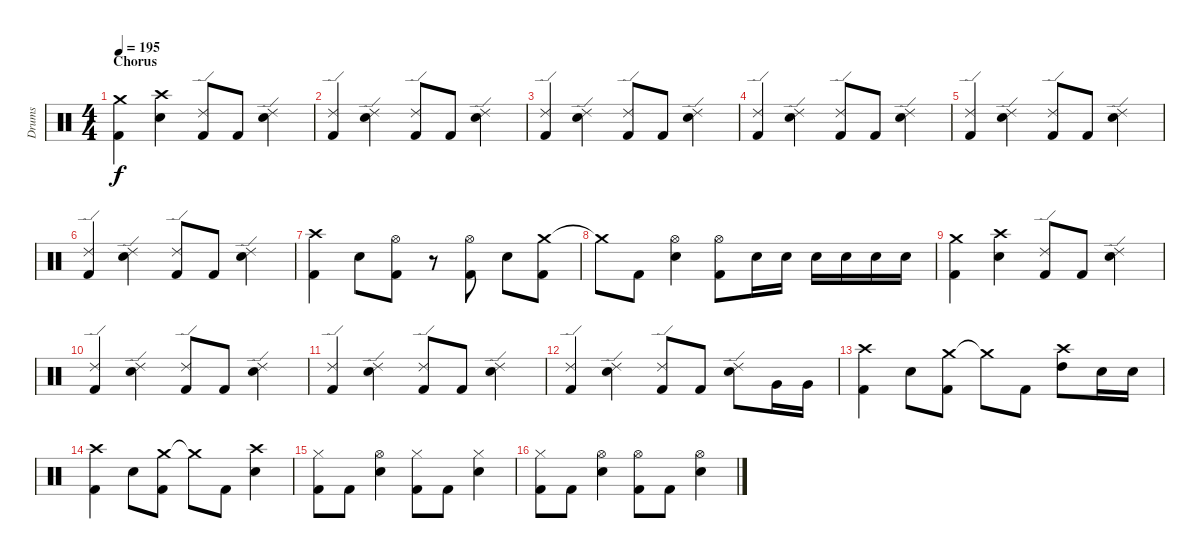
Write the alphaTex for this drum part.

\track ("Drums" "Drums") {instrument percussion}
\staff {score}
\articulation defaults
\ts (4 4)
\section ("" "Chorus")
\tempo 195
\clef neutral
\ks c
("Crash medium (hit)" "Kick (hit) 2").4{dy f} ("Crash high (hit)" "Snare (hit) 2").4 ("Ride (edge) 2" "Kick (hit) 2").8 "Kick (hit) 2".8 ("Ride (edge) 2" "Snare (hit) 2").4 |
("Ride (edge) 2" "Kick (hit) 2").4 ("Ride (edge) 2" "Snare (hit) 2").4 ("Ride (edge) 2" "Kick (hit) 2").8 "Kick (hit) 2".8 ("Ride (edge) 2" "Snare (hit) 2").4 |
("Ride (edge) 2" "Kick (hit) 2").4 ("Ride (edge) 2" "Snare (hit) 2").4 ("Ride (edge) 2" "Kick (hit) 2").8 "Kick (hit) 2".8 ("Ride (edge) 2" "Snare (hit) 2").4 |
("Ride (edge) 2" "Kick (hit) 2").4 ("Ride (edge) 2" "Snare (hit) 2").4 ("Ride (edge) 2" "Kick (hit) 2").8 "Kick (hit) 2".8 ("Ride (edge) 2" "Snare (hit) 2").4 |
("Ride (edge) 2" "Kick (hit) 2").4 ("Ride (edge) 2" "Snare (hit) 2").4 ("Ride (edge) 2" "Kick (hit) 2").8 "Kick (hit) 2".8 ("Ride (edge) 2" "Snare (hit) 2").4 |
("Ride (edge) 2" "Kick (hit) 2").4 ("Ride (edge) 2" "Snare (hit) 2").4 ("Ride (edge) 2" "Kick (hit) 2").8 "Kick (hit) 2".8 ("Ride (edge) 2" "Snare (hit) 2").4 |
("Crash high (hit)" "Kick (hit) 2").4 "Snare (hit) 2".8 ("Hi-Hat (open)" "Kick (hit) 2").8 r.8 ("Hi-Hat (open)" "Kick (hit) 2").8 "Snare (hit) 2".8 ("Crash medium (hit)" "Kick (hit) 2").8 |
"Crash medium (hit)"{t}.8 "Kick (hit) 2".8 ("Hi-Hat (open)" "Snare (hit) 2").4 ("Hi-Hat (open)" "Kick (hit) 2").8 "Snare (hit) 2".16 "Snare (hit) 2".16 "Snare (hit) 2".16 "Snare (hit) 2".16 "Snare (hit) 2".16 "Snare (hit) 2".16 |
("Crash medium (hit)" "Kick (hit) 2").4 ("Crash high (hit)" "Snare (hit) 2").4 ("Ride (edge) 2" "Kick (hit) 2").8 "Kick (hit) 2".8 ("Ride (edge) 2" "Snare (hit) 2").4 |
("Ride (edge) 2" "Kick (hit) 2").4 ("Ride (edge) 2" "Snare (hit) 2").4 ("Ride (edge) 2" "Kick (hit) 2").8 "Kick (hit) 2".8 ("Ride (edge) 2" "Snare (hit) 2").4 |
("Ride (edge) 2" "Kick (hit) 2").4 ("Ride (edge) 2" "Snare (hit) 2").4 ("Ride (edge) 2" "Kick (hit) 2").8 "Kick (hit) 2".8 ("Ride (edge) 2" "Snare (hit) 2").4 |
("Ride (edge) 2" "Kick (hit) 2").4 ("Ride (edge) 2" "Snare (hit) 2").4 ("Ride (edge) 2" "Kick (hit) 2").8 "Kick (hit) 2".8 ("Ride (edge) 2" "Snare (hit) 2").8 "Very Low Tom (hit)".16 "Very Low Tom (hit)".16 |
("Crash high (hit)" "Kick (hit) 2").4 "Snare (hit) 2".8 ("Crash medium (hit)" "Kick (hit) 2").8 "Crash medium (hit)"{t}.8 "Kick (hit) 2".8 ("Crash high (hit)" "High Tom (hit)").8 "Snare (hit) 2".16 "Snare (hit) 2".16 |
("Crash high (hit)" "Kick (hit) 2").4 "Snare (hit) 2".8 ("Crash medium (hit)" "Kick (hit) 2").8 "Crash medium (hit)"{t}.8 "Kick (hit) 2".8 ("Crash high (hit)" "Snare (hit) 2").4 |
("Hi-Hat (closed)" "Kick (hit) 2").8 "Kick (hit) 2".8 ("Hi-Hat (open)" "Snare (hit) 2").4 ("Hi-Hat (closed)" "Kick (hit) 2").8 "Kick (hit) 2".8 ("Hi-Hat (closed)" "Snare (hit) 2").4 |
("Hi-Hat (closed)" "Kick (hit) 2").8 "Kick (hit) 2".8 ("Hi-Hat (open)" "Snare (hit) 2").4 ("Hi-Hat (open)" "Kick (hit) 2").8 "Kick (hit) 2".8 ("Hi-Hat (open)" "Snare (hit) 2").4
